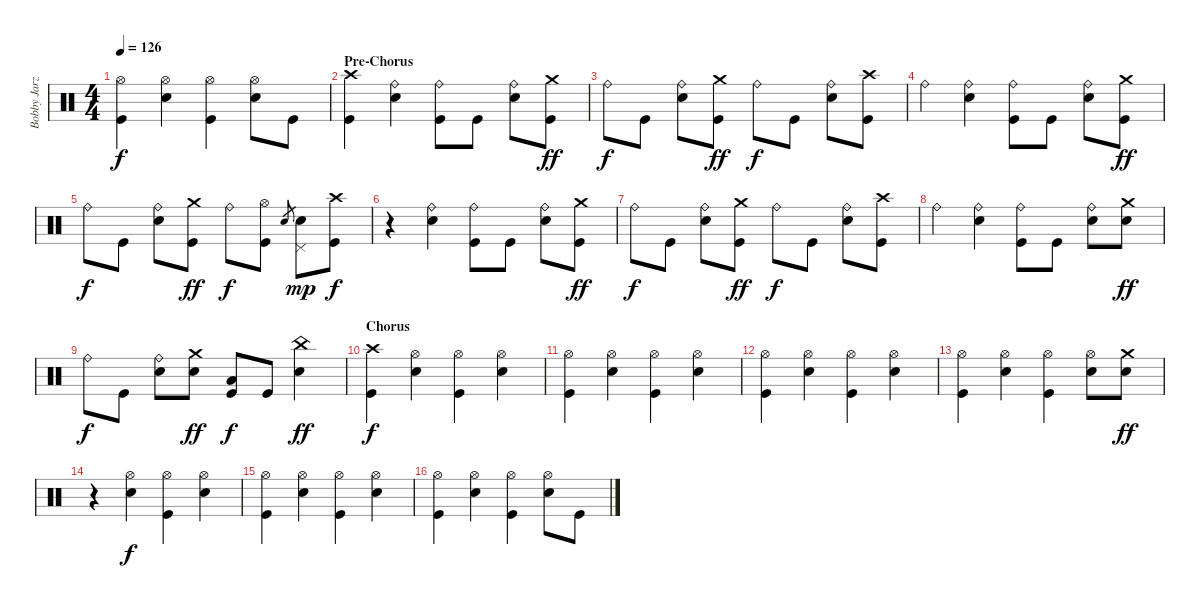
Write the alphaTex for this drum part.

\track ("Bobby Jarzombek" "Bobby Jarz") {instrument percussion}
\staff {score}
\articulation defaults
\ts (4 4)
\tempo 126
\clef neutral
\ks c
("Hi-Hat (open)" "Kick (hit)").4{dy f} ("Hi-Hat (open)" "Electric Snare (hit)").4 ("Hi-Hat (open)" "Kick (hit)").4 ("Hi-Hat (open)" "Electric Snare (hit)").8 "Kick (hit)".8 |
\section ("" "Pre-Chorus")
("Crash high (hit)" "Kick (hit)").4 ("Ride (bell)" "Electric Snare (hit)").4 ("Ride (bell)" "Kick (hit)").8 "Kick (hit)".8 ("Ride (bell)" "Electric Snare (hit)").8 ("Crash medium (hit)" "Kick (hit)").8{dy ff} |
"Ride (bell)".8{dy f} "Kick (hit)".8 ("Ride (bell)" "Electric Snare (hit)").8 ("Crash medium (hit)" "Kick (hit)").8{dy ff} "Ride (bell)".8{dy f} "Kick (hit)".8 ("Ride (bell)" "Electric Snare (hit)").8 ("Crash high (hit)" "Kick (hit)").8 |
"Ride (bell)".4 ("Ride (bell)" "Electric Snare (hit)").4 ("Ride (bell)" "Kick (hit)").8 "Kick (hit)".8 ("Ride (bell)" "Electric Snare (hit)").8 ("Crash medium (hit)" "Kick (hit)").8{dy ff} |
"Ride (bell)".8{dy f} "Kick (hit)".8 ("Ride (bell)" "Electric Snare (hit)").8 ("Crash medium (hit)" "Kick (hit)").8{dy ff} "Ride (bell)".8{dy f} ("Hi-Hat (open)" "Kick (hit)").8 "Electric Snare (hit)".8{gr} ("Electric Snare (hit)" "Pedal Hi-Hat (hit)").8{dy mp} ("Crash high (hit)" "Kick (hit)").8{dy f} |
r.4 ("Ride (bell)" "Electric Snare (hit)").4 ("Ride (bell)" "Kick (hit)").8 "Kick (hit)".8 ("Ride (bell)" "Electric Snare (hit)").8 ("Crash medium (hit)" "Kick (hit)").8{dy ff} |
"Ride (bell)".8{dy f} "Kick (hit)".8 ("Ride (bell)" "Electric Snare (hit)").8 ("Crash medium (hit)" "Kick (hit)").8{dy ff} "Ride (bell)".8{dy f} "Kick (hit)".8 ("Ride (bell)" "Electric Snare (hit)").8 ("Crash high (hit)" "Kick (hit)").8 |
"Ride (bell)".4 ("Ride (bell)" "Electric Snare (hit)").4 ("Ride (bell)" "Kick (hit)").8 "Kick (hit)".8 ("Ride (bell)" "Electric Snare (hit)").8 ("Crash medium (hit)" "Electric Snare (hit)").8{dy ff} |
"Ride (bell)".8{dy f} "Kick (hit)".8 ("Ride (bell)" "Electric Snare (hit)").8 ("Crash medium (hit)" "Electric Snare (hit)").8{dy ff} ("Low Tom (hit)" "Kick (hit)").8{dy f} "Kick (hit)".8 ("China (hit)" "Electric Snare (hit)").4{dy ff} |
\section ("" "Chorus")
("Crash high (hit)" "Kick (hit)").4{dy f} ("Hi-Hat (open)" "Electric Snare (hit)").4 ("Hi-Hat (open)" "Kick (hit)").4 ("Hi-Hat (open)" "Electric Snare (hit)").4 |
("Hi-Hat (open)" "Kick (hit)").4 ("Hi-Hat (open)" "Electric Snare (hit)").4 ("Hi-Hat (open)" "Kick (hit)").4 ("Hi-Hat (open)" "Electric Snare (hit)").4 |
("Hi-Hat (open)" "Kick (hit)").4 ("Hi-Hat (open)" "Electric Snare (hit)").4 ("Hi-Hat (open)" "Kick (hit)").4 ("Hi-Hat (open)" "Electric Snare (hit)").4 |
("Hi-Hat (open)" "Kick (hit)").4 ("Hi-Hat (open)" "Electric Snare (hit)").4 ("Hi-Hat (open)" "Kick (hit)").4 ("Hi-Hat (open)" "Electric Snare (hit)").8 ("Crash medium (hit)" "Electric Snare (hit)").8{dy ff} |
r.4 ("Hi-Hat (open)" "Electric Snare (hit)").4{dy f} ("Hi-Hat (open)" "Kick (hit)").4 ("Hi-Hat (open)" "Electric Snare (hit)").4 |
("Hi-Hat (open)" "Kick (hit)").4 ("Hi-Hat (open)" "Electric Snare (hit)").4 ("Hi-Hat (open)" "Kick (hit)").4 ("Hi-Hat (open)" "Electric Snare (hit)").4 |
("Hi-Hat (open)" "Kick (hit)").4 ("Hi-Hat (open)" "Electric Snare (hit)").4 ("Hi-Hat (open)" "Kick (hit)").4 ("Hi-Hat (open)" "Electric Snare (hit)").8 "Kick (hit)".8
